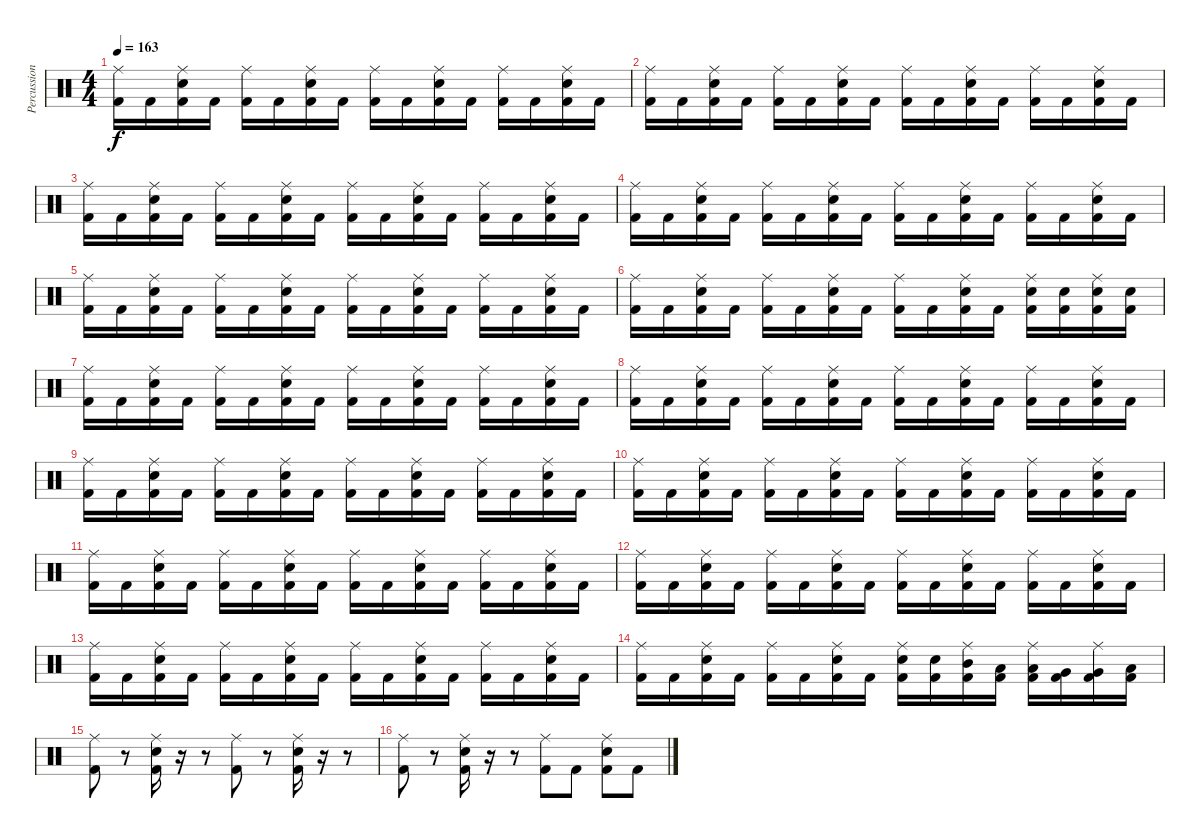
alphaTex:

\track ("Percussion" "Percussion") {instrument percussion}
\staff {score}
\articulation defaults
\ts (4 4)
\tempo 163
\clef neutral
\ks c
("Ride (middle)" "Kick (hit) 2").16{dy f} "Kick (hit) 2".16 ("Ride (middle)" "Kick (hit) 2" "Electric Snare (hit)").16 "Kick (hit) 2".16 ("Ride (middle)" "Kick (hit) 2").16 "Kick (hit) 2".16 ("Ride (middle)" "Kick (hit) 2" "Electric Snare (hit)").16 "Kick (hit) 2".16 ("Ride (middle)" "Kick (hit) 2").16 "Kick (hit) 2".16 ("Ride (middle)" "Kick (hit) 2" "Electric Snare (hit)").16 "Kick (hit) 2".16 ("Ride (middle)" "Kick (hit) 2").16 "Kick (hit) 2".16 ("Ride (middle)" "Kick (hit) 2" "Electric Snare (hit)").16 "Kick (hit) 2".16 |
("Ride (middle)" "Kick (hit) 2").16 "Kick (hit) 2".16 ("Ride (middle)" "Kick (hit) 2" "Electric Snare (hit)").16 "Kick (hit) 2".16 ("Ride (middle)" "Kick (hit) 2").16 "Kick (hit) 2".16 ("Ride (middle)" "Kick (hit) 2" "Electric Snare (hit)").16 "Kick (hit) 2".16 ("Ride (middle)" "Kick (hit) 2").16 "Kick (hit) 2".16 ("Ride (middle)" "Kick (hit) 2" "Electric Snare (hit)").16 "Kick (hit) 2".16 ("Ride (middle)" "Kick (hit) 2").16 "Kick (hit) 2".16 ("Ride (middle)" "Kick (hit) 2" "Electric Snare (hit)").16 "Kick (hit) 2".16 |
("Ride (middle)" "Kick (hit) 2").16 "Kick (hit) 2".16 ("Ride (middle)" "Kick (hit) 2" "Electric Snare (hit)").16 "Kick (hit) 2".16 ("Ride (middle)" "Kick (hit) 2").16 "Kick (hit) 2".16 ("Ride (middle)" "Kick (hit) 2" "Electric Snare (hit)").16 "Kick (hit) 2".16 ("Ride (middle)" "Kick (hit) 2").16 "Kick (hit) 2".16 ("Ride (middle)" "Kick (hit) 2" "Electric Snare (hit)").16 "Kick (hit) 2".16 ("Ride (middle)" "Kick (hit) 2").16 "Kick (hit) 2".16 ("Ride (middle)" "Kick (hit) 2" "Electric Snare (hit)").16 "Kick (hit) 2".16 |
("Ride (middle)" "Kick (hit) 2").16 "Kick (hit) 2".16 ("Ride (middle)" "Kick (hit) 2" "Electric Snare (hit)").16 "Kick (hit) 2".16 ("Ride (middle)" "Kick (hit) 2").16 "Kick (hit) 2".16 ("Ride (middle)" "Kick (hit) 2" "Electric Snare (hit)").16 "Kick (hit) 2".16 ("Ride (middle)" "Kick (hit) 2").16 "Kick (hit) 2".16 ("Ride (middle)" "Kick (hit) 2" "Electric Snare (hit)").16 "Kick (hit) 2".16 ("Ride (middle)" "Kick (hit) 2").16 "Kick (hit) 2".16 ("Ride (middle)" "Kick (hit) 2" "Electric Snare (hit)").16 "Kick (hit) 2".16 |
("Ride (middle)" "Kick (hit) 2").16 "Kick (hit) 2".16 ("Ride (middle)" "Kick (hit) 2" "Electric Snare (hit)").16 "Kick (hit) 2".16 ("Ride (middle)" "Kick (hit) 2").16 "Kick (hit) 2".16 ("Ride (middle)" "Kick (hit) 2" "Electric Snare (hit)").16 "Kick (hit) 2".16 ("Ride (middle)" "Kick (hit) 2").16 "Kick (hit) 2".16 ("Ride (middle)" "Kick (hit) 2" "Electric Snare (hit)").16 "Kick (hit) 2".16 ("Ride (middle)" "Kick (hit) 2").16 "Kick (hit) 2".16 ("Ride (middle)" "Kick (hit) 2" "Electric Snare (hit)").16 "Kick (hit) 2".16 |
("Ride (middle)" "Kick (hit) 2").16 "Kick (hit) 2".16 ("Ride (middle)" "Kick (hit) 2" "Electric Snare (hit)").16 "Kick (hit) 2".16 ("Ride (middle)" "Kick (hit) 2").16 "Kick (hit) 2".16 ("Ride (middle)" "Kick (hit) 2" "Electric Snare (hit)").16 "Kick (hit) 2".16 ("Ride (middle)" "Kick (hit) 2").16 "Kick (hit) 2".16 ("Ride (middle)" "Kick (hit) 2" "Electric Snare (hit)").16 "Kick (hit) 2".16 ("Ride (middle)" "Kick (hit) 2" "Electric Snare (hit)").16 ("Kick (hit) 2" "Electric Snare (hit)").16 ("Ride (middle)" "Kick (hit) 2" "Electric Snare (hit)").16 ("Kick (hit) 2" "Electric Snare (hit)").16 |
("Ride (middle)" "Kick (hit) 2").16 "Kick (hit) 2".16 ("Ride (middle)" "Kick (hit) 2" "Electric Snare (hit)").16 "Kick (hit) 2".16 ("Ride (middle)" "Kick (hit) 2").16 "Kick (hit) 2".16 ("Ride (middle)" "Kick (hit) 2" "Electric Snare (hit)").16 "Kick (hit) 2".16 ("Ride (middle)" "Kick (hit) 2").16 "Kick (hit) 2".16 ("Ride (middle)" "Kick (hit) 2" "Electric Snare (hit)").16 "Kick (hit) 2".16 ("Ride (middle)" "Kick (hit) 2").16 "Kick (hit) 2".16 ("Ride (middle)" "Kick (hit) 2" "Electric Snare (hit)").16 "Kick (hit) 2".16 |
("Ride (middle)" "Kick (hit) 2").16 "Kick (hit) 2".16 ("Ride (middle)" "Kick (hit) 2" "Electric Snare (hit)").16 "Kick (hit) 2".16 ("Ride (middle)" "Kick (hit) 2").16 "Kick (hit) 2".16 ("Ride (middle)" "Kick (hit) 2" "Electric Snare (hit)").16 "Kick (hit) 2".16 ("Ride (middle)" "Kick (hit) 2").16 "Kick (hit) 2".16 ("Ride (middle)" "Kick (hit) 2" "Electric Snare (hit)").16 "Kick (hit) 2".16 ("Ride (middle)" "Kick (hit) 2").16 "Kick (hit) 2".16 ("Ride (middle)" "Kick (hit) 2" "Electric Snare (hit)").16 "Kick (hit) 2".16 |
("Ride (middle)" "Kick (hit) 2").16 "Kick (hit) 2".16 ("Ride (middle)" "Kick (hit) 2" "Electric Snare (hit)").16 "Kick (hit) 2".16 ("Ride (middle)" "Kick (hit) 2").16 "Kick (hit) 2".16 ("Ride (middle)" "Kick (hit) 2" "Electric Snare (hit)").16 "Kick (hit) 2".16 ("Ride (middle)" "Kick (hit) 2").16 "Kick (hit) 2".16 ("Ride (middle)" "Kick (hit) 2" "Electric Snare (hit)").16 "Kick (hit) 2".16 ("Ride (middle)" "Kick (hit) 2").16 "Kick (hit) 2".16 ("Ride (middle)" "Kick (hit) 2" "Electric Snare (hit)").16 "Kick (hit) 2".16 |
("Ride (middle)" "Kick (hit) 2").16 "Kick (hit) 2".16 ("Ride (middle)" "Kick (hit) 2" "Electric Snare (hit)").16 "Kick (hit) 2".16 ("Ride (middle)" "Kick (hit) 2").16 "Kick (hit) 2".16 ("Ride (middle)" "Kick (hit) 2" "Electric Snare (hit)").16 "Kick (hit) 2".16 ("Ride (middle)" "Kick (hit) 2").16 "Kick (hit) 2".16 ("Ride (middle)" "Kick (hit) 2" "Electric Snare (hit)").16 "Kick (hit) 2".16 ("Ride (middle)" "Kick (hit) 2").16 "Kick (hit) 2".16 ("Ride (middle)" "Kick (hit) 2" "Electric Snare (hit)").16 "Kick (hit) 2".16 |
("Ride (middle)" "Kick (hit) 2").16 "Kick (hit) 2".16 ("Ride (middle)" "Kick (hit) 2" "Electric Snare (hit)").16 "Kick (hit) 2".16 ("Ride (middle)" "Kick (hit) 2").16 "Kick (hit) 2".16 ("Ride (middle)" "Kick (hit) 2" "Electric Snare (hit)").16 "Kick (hit) 2".16 ("Ride (middle)" "Kick (hit) 2").16 "Kick (hit) 2".16 ("Ride (middle)" "Kick (hit) 2" "Electric Snare (hit)").16 "Kick (hit) 2".16 ("Ride (middle)" "Kick (hit) 2").16 "Kick (hit) 2".16 ("Ride (middle)" "Kick (hit) 2" "Electric Snare (hit)").16 "Kick (hit) 2".16 |
("Ride (middle)" "Kick (hit) 2").16 "Kick (hit) 2".16 ("Ride (middle)" "Kick (hit) 2" "Electric Snare (hit)").16 "Kick (hit) 2".16 ("Ride (middle)" "Kick (hit) 2").16 "Kick (hit) 2".16 ("Ride (middle)" "Kick (hit) 2" "Electric Snare (hit)").16 "Kick (hit) 2".16 ("Ride (middle)" "Kick (hit) 2").16 "Kick (hit) 2".16 ("Ride (middle)" "Kick (hit) 2" "Electric Snare (hit)").16 "Kick (hit) 2".16 ("Ride (middle)" "Kick (hit) 2").16 "Kick (hit) 2".16 ("Ride (middle)" "Kick (hit) 2" "Electric Snare (hit)").16 "Kick (hit) 2".16 |
("Ride (middle)" "Kick (hit) 2").16 "Kick (hit) 2".16 ("Ride (middle)" "Kick (hit) 2" "Electric Snare (hit)").16 "Kick (hit) 2".16 ("Ride (middle)" "Kick (hit) 2").16 "Kick (hit) 2".16 ("Ride (middle)" "Kick (hit) 2" "Electric Snare (hit)").16 "Kick (hit) 2".16 ("Ride (middle)" "Kick (hit) 2").16 "Kick (hit) 2".16 ("Ride (middle)" "Kick (hit) 2" "Electric Snare (hit)").16 "Kick (hit) 2".16 ("Ride (middle)" "Kick (hit) 2").16 "Kick (hit) 2".16 ("Ride (middle)" "Kick (hit) 2" "Electric Snare (hit)").16 "Kick (hit) 2".16 |
("Ride (middle)" "Kick (hit) 2").16 "Kick (hit) 2".16 ("Ride (middle)" "Kick (hit) 2" "Electric Snare (hit)").16 "Kick (hit) 2".16 ("Ride (middle)" "Kick (hit) 2").16 "Kick (hit) 2".16 ("Ride (middle)" "Kick (hit) 2" "Electric Snare (hit)").16 "Kick (hit) 2".16 ("Ride (middle)" "Kick (hit) 2" "Electric Snare (hit)").16 ("Kick (hit) 2" "Electric Snare (hit)").16 ("Ride (middle)" "Kick (hit) 2" "Mid Tom (hit)").16 ("Kick (hit) 2" "Low Tom (hit)").16 ("Ride (middle)" "Kick (hit) 2" "Low Tom (hit)").16 ("Kick (hit) 2" "Very Low Tom (hit)").16 ("Ride (middle)" "Kick (hit) 2" "Very Low Tom (hit)").16 ("Kick (hit) 2" "Low Floor Tom (hit)").16 |
("Ride (middle)" "Kick (hit) 2").8 r.8 ("Ride (middle)" "Kick (hit) 2" "Electric Snare (hit)").16 r.16 r.8 ("Ride (middle)" "Kick (hit) 2").8 r.8 ("Ride (middle)" "Kick (hit) 2" "Electric Snare (hit)").16 r.16 r.8 |
("Ride (middle)" "Kick (hit) 2").8 r.8 ("Ride (middle)" "Kick (hit) 2" "Electric Snare (hit)").16 r.16 r.8 ("Ride (middle)" "Kick (hit) 2").8 "Kick (hit) 2".8 ("Ride (middle)" "Kick (hit) 2" "Electric Snare (hit)").8 "Kick (hit) 2".8
